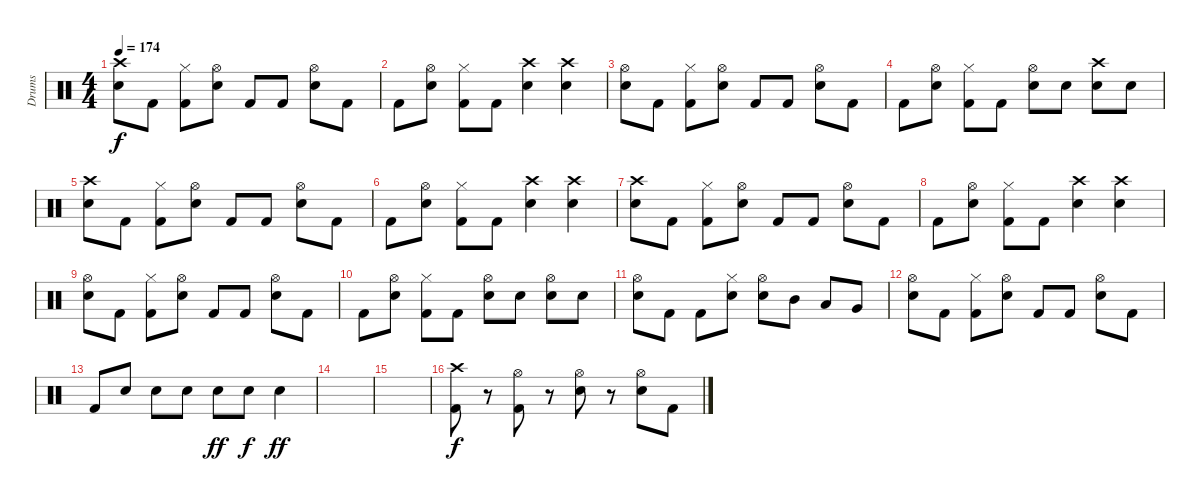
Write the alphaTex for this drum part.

\track ("Drums" "Drums") {instrument percussion}
\staff {score}
\articulation defaults
\ts (4 4)
\tempo 174
\clef neutral
\ks c
("Crash high (hit)" "Electric Snare (hit)").8{dy f} "Kick (hit) 2".8 ("Hi-Hat (closed)" "Kick (hit) 2").8 ("Hi-Hat (open)" "Electric Snare (hit)").8 "Kick (hit) 2".8 "Kick (hit) 2".8 ("Hi-Hat (open)" "Electric Snare (hit)").8 "Kick (hit) 2".8 |
"Kick (hit) 2".8 ("Hi-Hat (open)" "Electric Snare (hit)").8 ("Hi-Hat (closed)" "Kick (hit) 2").8 "Kick (hit) 2".8 ("Crash high (hit)" "Electric Snare (hit)").4 ("Crash high (hit)" "Electric Snare (hit)").4 |
("Hi-Hat (open)" "Electric Snare (hit)").8 "Kick (hit) 2".8 ("Hi-Hat (closed)" "Kick (hit) 2").8 ("Hi-Hat (open)" "Electric Snare (hit)").8 "Kick (hit) 2".8 "Kick (hit) 2".8 ("Hi-Hat (open)" "Electric Snare (hit)").8 "Kick (hit) 2".8 |
"Kick (hit) 2".8 ("Hi-Hat (open)" "Electric Snare (hit)").8 ("Hi-Hat (closed)" "Kick (hit) 2").8 "Kick (hit) 2".8 ("Hi-Hat (open)" "Electric Snare (hit)").8 "Electric Snare (hit)".8 ("Crash high (hit)" "Electric Snare (hit)").8 "Electric Snare (hit)".8 |
("Crash high (hit)" "Electric Snare (hit)").8 "Kick (hit) 2".8 ("Hi-Hat (closed)" "Kick (hit) 2").8 ("Hi-Hat (open)" "Electric Snare (hit)").8 "Kick (hit) 2".8 "Kick (hit) 2".8 ("Hi-Hat (open)" "Electric Snare (hit)").8 "Kick (hit) 2".8 |
"Kick (hit) 2".8 ("Hi-Hat (open)" "Electric Snare (hit)").8 ("Hi-Hat (closed)" "Kick (hit) 2").8 "Kick (hit) 2".8 ("Crash high (hit)" "Electric Snare (hit)").4 ("Crash high (hit)" "Electric Snare (hit)").4 |
("Crash high (hit)" "Electric Snare (hit)").8 "Kick (hit) 2".8 ("Hi-Hat (closed)" "Kick (hit) 2").8 ("Hi-Hat (open)" "Electric Snare (hit)").8 "Kick (hit) 2".8 "Kick (hit) 2".8 ("Hi-Hat (open)" "Electric Snare (hit)").8 "Kick (hit) 2".8 |
"Kick (hit) 2".8 ("Hi-Hat (open)" "Electric Snare (hit)").8 ("Hi-Hat (closed)" "Kick (hit) 2").8 "Kick (hit) 2".8 ("Crash high (hit)" "Electric Snare (hit)").4 ("Crash high (hit)" "Electric Snare (hit)").4 |
("Hi-Hat (open)" "Electric Snare (hit)").8 "Kick (hit) 2".8 ("Hi-Hat (closed)" "Kick (hit) 2").8 ("Hi-Hat (open)" "Electric Snare (hit)").8 "Kick (hit) 2".8 "Kick (hit) 2".8 ("Hi-Hat (open)" "Electric Snare (hit)").8 "Kick (hit) 2".8 |
"Kick (hit) 2".8 ("Hi-Hat (open)" "Electric Snare (hit)").8 ("Hi-Hat (closed)" "Kick (hit) 2").8 "Kick (hit) 2".8 ("Hi-Hat (open)" "Electric Snare (hit)").8 "Electric Snare (hit)".8 ("Hi-Hat (open)" "Electric Snare (hit)").8 "Electric Snare (hit)".8 |
("Hi-Hat (open)" "Electric Snare (hit)").8 "Kick (hit) 2".8 "Kick (hit) 2".8 ("Hi-Hat (closed)" "Electric Snare (hit)").8 ("Hi-Hat (open)" "Electric Snare (hit)").8 "Mid Tom (hit)".8 "Low Tom (hit)".8 "Very Low Tom (hit)".8 |
("Hi-Hat (open)" "Electric Snare (hit)").8 "Kick (hit) 2".8 ("Hi-Hat (closed)" "Kick (hit) 2").8 ("Hi-Hat (open)" "Electric Snare (hit)").8 "Kick (hit) 2".8 "Kick (hit) 2".8 ("Hi-Hat (open)" "Electric Snare (hit)").8 "Kick (hit) 2".8 |
"Kick (hit) 2".8 "Electric Snare (hit)".8 "Electric Snare (hit)".8 "Electric Snare (hit)".8 "Electric Snare (hit)".8{dy ff} "Electric Snare (hit)".8{dy f} "Electric Snare (hit)".4{dy ff} |
|
|
("Crash high (hit)" "Kick (hit) 2").8{dy f} r.8 ("Hi-Hat (open)" "Kick (hit) 2").8 r.8 ("Hi-Hat (open)" "Electric Snare (hit)").8 r.8 ("Hi-Hat (open)" "Electric Snare (hit)").8 "Kick (hit) 2".8
